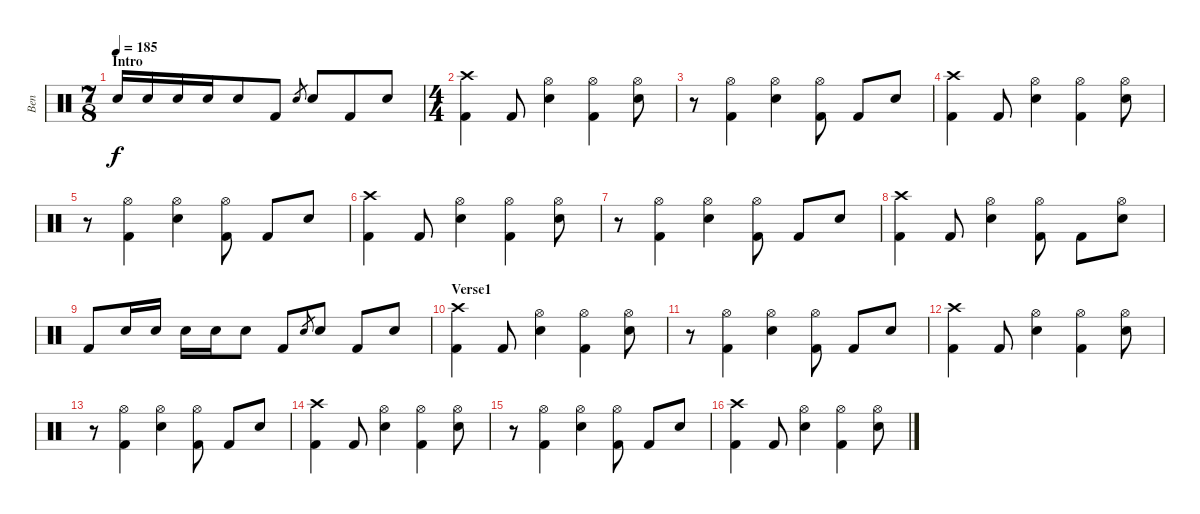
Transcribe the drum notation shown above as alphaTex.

\track ("Ben" "Ben") {instrument percussion}
\staff {score}
\articulation defaults
\ts (7 8)
\section ("" "Intro")
\tempo 185
\clef neutral
\ks c "Electric Snare (hit)".16{dy f} "Electric Snare (hit)".16 "Electric Snare (hit)".16 "Electric Snare (hit)".16 "Electric Snare (hit)".8 "Kick (hit) 2".8 "Electric Snare (hit)".8{gr} "Electric Snare (hit)".8 "Kick (hit) 2".8 "Electric Snare (hit)".8
|
\ts (4 4)
("Crash high (hit)" "Kick (hit) 2").4 "Kick (hit) 2".8 ("Hi-Hat (open)" "Electric Snare (hit)").4 ("Hi-Hat (open)" "Kick (hit) 2").4 ("Hi-Hat (open)" "Electric Snare (hit)").8 |
r.8 ("Hi-Hat (open)" "Kick (hit) 2").4 ("Hi-Hat (open)" "Electric Snare (hit)").4 ("Hi-Hat (open)" "Kick (hit) 2").8 "Kick (hit) 2".8 "Electric Snare (hit)".8 |
("Crash high (hit)" "Kick (hit) 2").4 "Kick (hit) 2".8 ("Hi-Hat (open)" "Electric Snare (hit)").4 ("Hi-Hat (open)" "Kick (hit) 2").4 ("Hi-Hat (open)" "Electric Snare (hit)").8 |
r.8 ("Hi-Hat (open)" "Kick (hit) 2").4 ("Hi-Hat (open)" "Electric Snare (hit)").4 ("Hi-Hat (open)" "Kick (hit) 2").8 "Kick (hit) 2".8 "Electric Snare (hit)".8 |
("Crash high (hit)" "Kick (hit) 2").4 "Kick (hit) 2".8 ("Hi-Hat (open)" "Electric Snare (hit)").4 ("Hi-Hat (open)" "Kick (hit) 2").4 ("Hi-Hat (open)" "Electric Snare (hit)").8 |
r.8 ("Hi-Hat (open)" "Kick (hit) 2").4 ("Hi-Hat (open)" "Electric Snare (hit)").4 ("Hi-Hat (open)" "Kick (hit) 2").8 "Kick (hit) 2".8 "Electric Snare (hit)".8 |
("Crash high (hit)" "Kick (hit) 2").4 "Kick (hit) 2".8 ("Hi-Hat (open)" "Electric Snare (hit)").4 ("Hi-Hat (open)" "Kick (hit) 2").8 "Kick (hit) 2".8 ("Hi-Hat (open)" "Electric Snare (hit)").8 |
"Kick (hit) 2".8 "Electric Snare (hit)".16 "Electric Snare (hit)".16 "Electric Snare (hit)".16 "Electric Snare (hit)".16 "Electric Snare (hit)".8 "Kick (hit) 2".8 "Electric Snare (hit)".8{gr} "Electric Snare (hit)".8 "Kick (hit) 2".8 "Electric Snare (hit)".8 |
\section ("" "Verse1")
("Crash high (hit)" "Kick (hit) 2").4 "Kick (hit) 2".8 ("Hi-Hat (open)" "Electric Snare (hit)").4 ("Hi-Hat (open)" "Kick (hit) 2").4 ("Hi-Hat (open)" "Electric Snare (hit)").8 |
r.8 ("Hi-Hat (open)" "Kick (hit) 2").4 ("Hi-Hat (open)" "Electric Snare (hit)").4 ("Hi-Hat (open)" "Kick (hit) 2").8 "Kick (hit) 2".8 "Electric Snare (hit)".8 |
("Crash high (hit)" "Kick (hit) 2").4 "Kick (hit) 2".8 ("Hi-Hat (open)" "Electric Snare (hit)").4 ("Hi-Hat (open)" "Kick (hit) 2").4 ("Hi-Hat (open)" "Electric Snare (hit)").8 |
r.8 ("Hi-Hat (open)" "Kick (hit) 2").4 ("Hi-Hat (open)" "Electric Snare (hit)").4 ("Hi-Hat (open)" "Kick (hit) 2").8 "Kick (hit) 2".8 "Electric Snare (hit)".8 |
("Crash high (hit)" "Kick (hit) 2").4 "Kick (hit) 2".8 ("Hi-Hat (open)" "Electric Snare (hit)").4 ("Hi-Hat (open)" "Kick (hit) 2").4 ("Hi-Hat (open)" "Electric Snare (hit)").8 |
r.8 ("Hi-Hat (open)" "Kick (hit) 2").4 ("Hi-Hat (open)" "Electric Snare (hit)").4 ("Hi-Hat (open)" "Kick (hit) 2").8 "Kick (hit) 2".8 "Electric Snare (hit)".8 |
("Crash high (hit)" "Kick (hit) 2").4 "Kick (hit) 2".8 ("Hi-Hat (open)" "Electric Snare (hit)").4 ("Hi-Hat (open)" "Kick (hit) 2").4 ("Hi-Hat (open)" "Electric Snare (hit)").8
